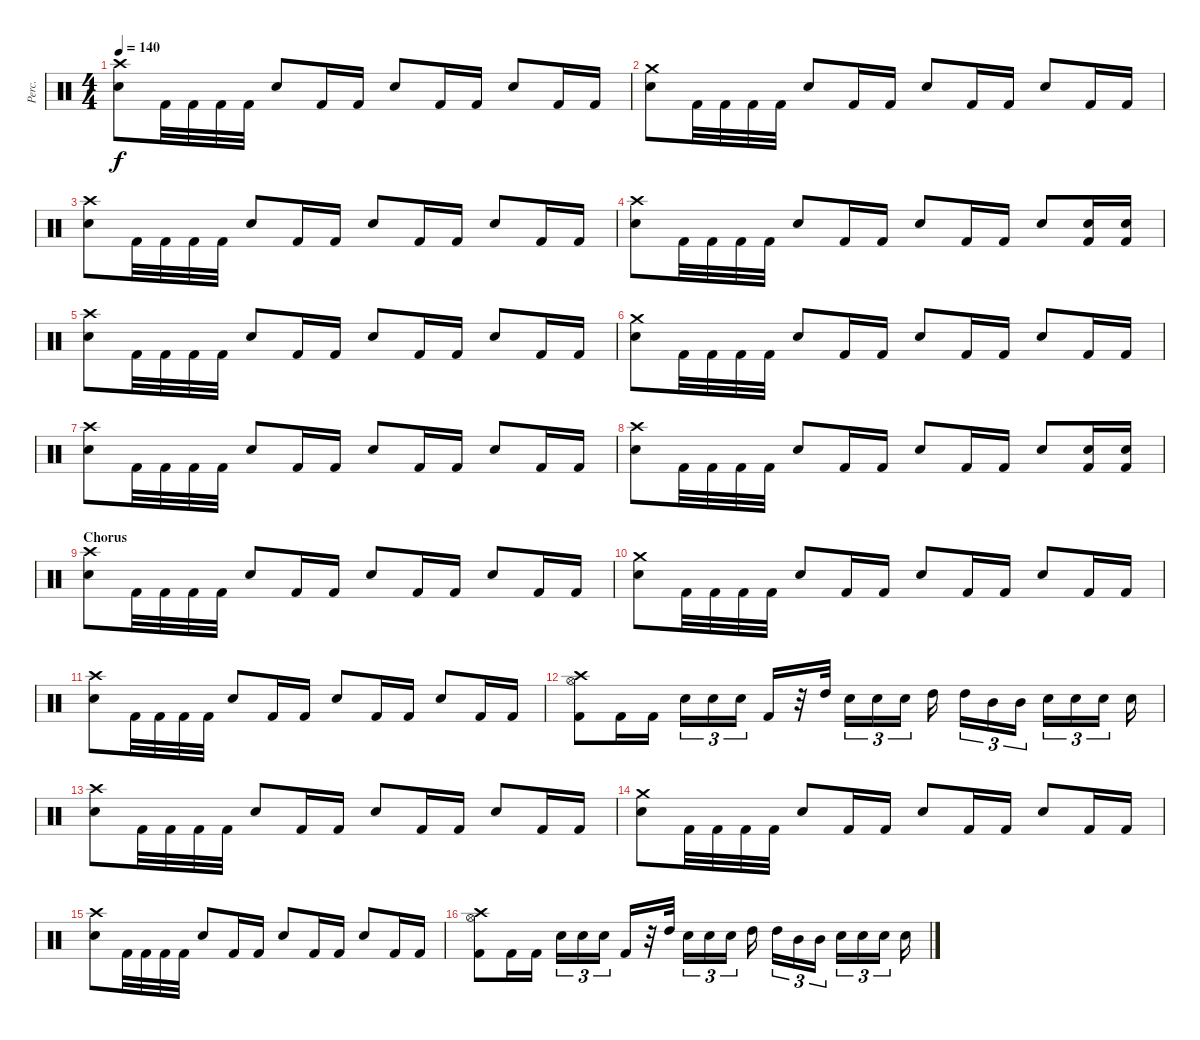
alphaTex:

\track ("Perc." "Perc.") {instrument percussion}
\staff {score}
\articulation defaults
\ts (4 4)
\tempo 140
\clef neutral
\ks c
("Crash high (hit)" "Electric Snare (hit)").8{dy f} "Kick (hit) 2".32 "Kick (hit) 2".32 "Kick (hit) 2".32 "Kick (hit) 2".32 "Electric Snare (hit)".8 "Kick (hit) 2".16 "Kick (hit) 2".16 "Electric Snare (hit)".8 "Kick (hit) 2".16 "Kick (hit) 2".16 "Electric Snare (hit)".8 "Kick (hit) 2".16 "Kick (hit) 2".16 |
("Crash medium (hit)" "Electric Snare (hit)").8 "Kick (hit) 2".32 "Kick (hit) 2".32 "Kick (hit) 2".32 "Kick (hit) 2".32 "Electric Snare (hit)".8 "Kick (hit) 2".16 "Kick (hit) 2".16 "Electric Snare (hit)".8 "Kick (hit) 2".16 "Kick (hit) 2".16 "Electric Snare (hit)".8 "Kick (hit) 2".16 "Kick (hit) 2".16 |
("Crash high (hit)" "Electric Snare (hit)").8 "Kick (hit) 2".32 "Kick (hit) 2".32 "Kick (hit) 2".32 "Kick (hit) 2".32 "Electric Snare (hit)".8 "Kick (hit) 2".16 "Kick (hit) 2".16 "Electric Snare (hit)".8 "Kick (hit) 2".16 "Kick (hit) 2".16 "Electric Snare (hit)".8 "Kick (hit) 2".16 "Kick (hit) 2".16 |
("Crash high (hit)" "Electric Snare (hit)").8 "Kick (hit) 2".32 "Kick (hit) 2".32 "Kick (hit) 2".32 "Kick (hit) 2".32 "Electric Snare (hit)".8 "Kick (hit) 2".16 "Kick (hit) 2".16 "Electric Snare (hit)".8 "Kick (hit) 2".16 "Kick (hit) 2".16 "Electric Snare (hit)".8 ("Electric Snare (hit)" "Kick (hit) 2").16 ("Electric Snare (hit)" "Kick (hit) 2").16 |
("Crash high (hit)" "Electric Snare (hit)").8 "Kick (hit) 2".32 "Kick (hit) 2".32 "Kick (hit) 2".32 "Kick (hit) 2".32 "Electric Snare (hit)".8 "Kick (hit) 2".16 "Kick (hit) 2".16 "Electric Snare (hit)".8 "Kick (hit) 2".16 "Kick (hit) 2".16 "Electric Snare (hit)".8 "Kick (hit) 2".16 "Kick (hit) 2".16 |
("Crash medium (hit)" "Electric Snare (hit)").8 "Kick (hit) 2".32 "Kick (hit) 2".32 "Kick (hit) 2".32 "Kick (hit) 2".32 "Electric Snare (hit)".8 "Kick (hit) 2".16 "Kick (hit) 2".16 "Electric Snare (hit)".8 "Kick (hit) 2".16 "Kick (hit) 2".16 "Electric Snare (hit)".8 "Kick (hit) 2".16 "Kick (hit) 2".16 |
("Crash high (hit)" "Electric Snare (hit)").8 "Kick (hit) 2".32 "Kick (hit) 2".32 "Kick (hit) 2".32 "Kick (hit) 2".32 "Electric Snare (hit)".8 "Kick (hit) 2".16 "Kick (hit) 2".16 "Electric Snare (hit)".8 "Kick (hit) 2".16 "Kick (hit) 2".16 "Electric Snare (hit)".8 "Kick (hit) 2".16 "Kick (hit) 2".16 |
("Crash high (hit)" "Electric Snare (hit)").8 "Kick (hit) 2".32 "Kick (hit) 2".32 "Kick (hit) 2".32 "Kick (hit) 2".32 "Electric Snare (hit)".8 "Kick (hit) 2".16 "Kick (hit) 2".16 "Electric Snare (hit)".8 "Kick (hit) 2".16 "Kick (hit) 2".16 "Electric Snare (hit)".8 ("Electric Snare (hit)" "Kick (hit) 2").16 ("Electric Snare (hit)" "Kick (hit) 2").16 |
\section ("" "Chorus")
("Crash high (hit)" "Electric Snare (hit)").8 "Kick (hit) 2".32 "Kick (hit) 2".32 "Kick (hit) 2".32 "Kick (hit) 2".32 "Electric Snare (hit)".8 "Kick (hit) 2".16 "Kick (hit) 2".16 "Electric Snare (hit)".8 "Kick (hit) 2".16 "Kick (hit) 2".16 "Electric Snare (hit)".8 "Kick (hit) 2".16 "Kick (hit) 2".16 |
("Crash medium (hit)" "Electric Snare (hit)").8 "Kick (hit) 2".32 "Kick (hit) 2".32 "Kick (hit) 2".32 "Kick (hit) 2".32 "Electric Snare (hit)".8 "Kick (hit) 2".16 "Kick (hit) 2".16 "Electric Snare (hit)".8 "Kick (hit) 2".16 "Kick (hit) 2".16 "Electric Snare (hit)".8 "Kick (hit) 2".16 "Kick (hit) 2".16 |
("Crash high (hit)" "Electric Snare (hit)").8 "Kick (hit) 2".32 "Kick (hit) 2".32 "Kick (hit) 2".32 "Kick (hit) 2".32 "Electric Snare (hit)".8 "Kick (hit) 2".16 "Kick (hit) 2".16 "Electric Snare (hit)".8 "Kick (hit) 2".16 "Kick (hit) 2".16 "Electric Snare (hit)".8 "Kick (hit) 2".16 "Kick (hit) 2".16 |
("Crash high (hit)" "Hi-Hat (open)" "Kick (hit) 2").8 "Kick (hit) 2".16 "Kick (hit) 2".16 "Electric Snare (hit)".16{tu (3 2)} "Electric Snare (hit)".16{tu (3 2)} "Electric Snare (hit)".16{tu (3 2)} "Kick (hit) 2".16 r.32 "High Tom (hit)".32 "Electric Snare (hit)".16{tu (3 2)} "Electric Snare (hit)".16{tu (3 2)} "Electric Snare (hit)".16{tu (3 2)} "High Tom (hit)".16 "High Tom (hit)".16{tu (3 2)} "Mid Tom (hit)".16{tu (3 2)} "Mid Tom (hit)".16{tu (3 2)} "Electric Snare (hit)".16{tu (3 2)} "Electric Snare (hit)".16{tu (3 2)} "Electric Snare (hit)".16{tu (3 2)} "Electric Snare (hit)".16 |
("Crash high (hit)" "Electric Snare (hit)").8 "Kick (hit) 2".32 "Kick (hit) 2".32 "Kick (hit) 2".32 "Kick (hit) 2".32 "Electric Snare (hit)".8 "Kick (hit) 2".16 "Kick (hit) 2".16 "Electric Snare (hit)".8 "Kick (hit) 2".16 "Kick (hit) 2".16 "Electric Snare (hit)".8 "Kick (hit) 2".16 "Kick (hit) 2".16 |
("Crash medium (hit)" "Electric Snare (hit)").8 "Kick (hit) 2".32 "Kick (hit) 2".32 "Kick (hit) 2".32 "Kick (hit) 2".32 "Electric Snare (hit)".8 "Kick (hit) 2".16 "Kick (hit) 2".16 "Electric Snare (hit)".8 "Kick (hit) 2".16 "Kick (hit) 2".16 "Electric Snare (hit)".8 "Kick (hit) 2".16 "Kick (hit) 2".16 |
("Crash high (hit)" "Electric Snare (hit)").8 "Kick (hit) 2".32 "Kick (hit) 2".32 "Kick (hit) 2".32 "Kick (hit) 2".32 "Electric Snare (hit)".8 "Kick (hit) 2".16 "Kick (hit) 2".16 "Electric Snare (hit)".8 "Kick (hit) 2".16 "Kick (hit) 2".16 "Electric Snare (hit)".8 "Kick (hit) 2".16 "Kick (hit) 2".16 |
("Crash high (hit)" "Hi-Hat (open)" "Kick (hit) 2").8 "Kick (hit) 2".16 "Kick (hit) 2".16 "Electric Snare (hit)".16{tu (3 2)} "Electric Snare (hit)".16{tu (3 2)} "Electric Snare (hit)".16{tu (3 2)} "Kick (hit) 2".16 r.32 "High Tom (hit)".32 "Electric Snare (hit)".16{tu (3 2)} "Electric Snare (hit)".16{tu (3 2)} "Electric Snare (hit)".16{tu (3 2)} "High Tom (hit)".16 "High Tom (hit)".16{tu (3 2)} "Mid Tom (hit)".16{tu (3 2)} "Mid Tom (hit)".16{tu (3 2)} "Electric Snare (hit)".16{tu (3 2)} "Electric Snare (hit)".16{tu (3 2)} "Electric Snare (hit)".16{tu (3 2)} "Electric Snare (hit)".16
